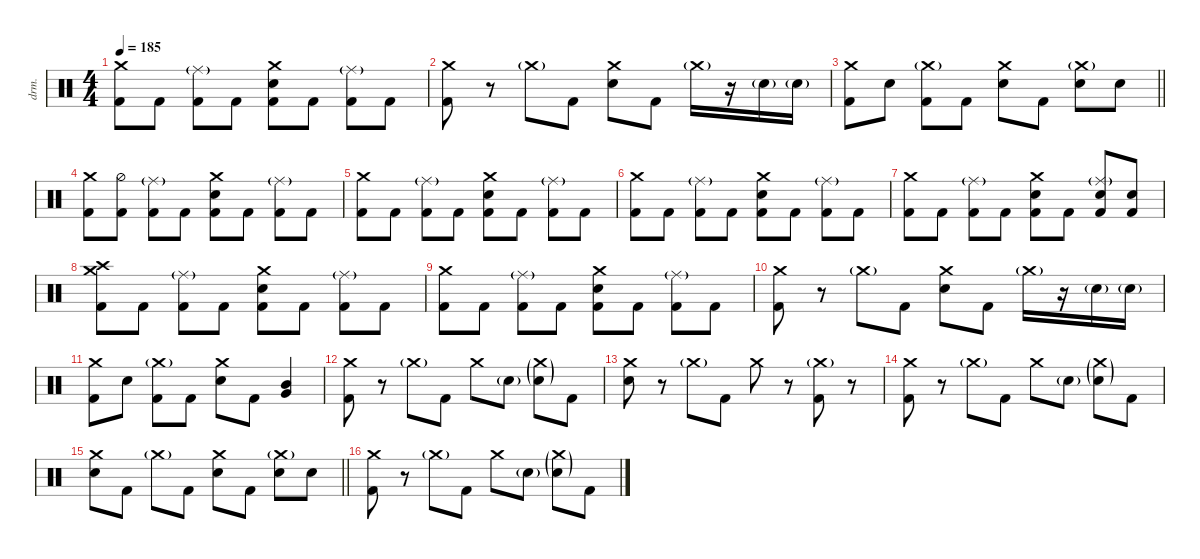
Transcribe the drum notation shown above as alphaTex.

\defaultSystemsLayout 4
\hideDynamics
\bracketExtendMode nobrackets
\track ("Drums - Šimon" "drm.") {instrument percussion}
\staff {score}
\articulation defaults
\ts (4 4)
\tempo 185
\clef neutral
\ks c
("Crash medium (hit)" "Kick (hit) 2").8{dy ff} "Kick (hit) 2".8 ("Kick (hit) 2" "Ride (middle)"{g}).8 "Kick (hit) 2".8 ("Snare (hit) 2" "Crash medium (hit)" "Kick (hit) 2").8 "Kick (hit) 2".8 ("Kick (hit) 2" "Ride (middle)"{g}).8 "Kick (hit) 2".8 |
("Kick (hit) 2" "Crash medium (hit)").8 r.8 "Crash medium (hit)"{g}.8 "Kick (hit) 2".8 ("Snare (hit) 2" "Crash medium (hit)").8 "Kick (hit) 2".8 "Crash medium (hit)"{g}.16 r.16 "Snare (hit) 2"{g}.16 "Snare (hit) 2"{g}.16 |
\barLineRight lightlight
("Crash medium (hit)" "Kick (hit) 2").8 "Snare (hit) 2".8 ("Kick (hit) 2" "Crash medium (hit)"{g}).8 "Kick (hit) 2".8 ("Snare (hit) 2" "Crash medium (hit)").8 "Kick (hit) 2".8 ("Crash medium (hit)"{g} "Snare (hit) 2").8 "Snare (hit) 2".8 |
("Crash medium (hit)" "Kick (hit) 2").8 ("Kick (hit) 2" "Hi-Hat (half)").8 ("Kick (hit) 2" "Ride (middle)"{g}).8 "Kick (hit) 2".8 ("Snare (hit) 2" "Crash medium (hit)" "Kick (hit) 2").8 "Kick (hit) 2".8 ("Kick (hit) 2" "Ride (middle)"{g}).8 "Kick (hit) 2".8 |
("Crash medium (hit)" "Kick (hit) 2").8 "Kick (hit) 2".8 ("Kick (hit) 2" "Ride (middle)"{g}).8 "Kick (hit) 2".8 ("Snare (hit) 2" "Crash medium (hit)" "Kick (hit) 2").8 "Kick (hit) 2".8 ("Kick (hit) 2" "Ride (middle)"{g}).8 "Kick (hit) 2".8 |
("Crash medium (hit)" "Kick (hit) 2").8 "Kick (hit) 2".8 ("Kick (hit) 2" "Ride (middle)"{g}).8 "Kick (hit) 2".8 ("Snare (hit) 2" "Crash medium (hit)" "Kick (hit) 2").8 "Kick (hit) 2".8 ("Kick (hit) 2" "Ride (middle)"{g}).8 "Kick (hit) 2".8 |
("Crash medium (hit)" "Kick (hit) 2").8 "Kick (hit) 2".8 ("Kick (hit) 2" "Ride (middle)"{g}).8 "Kick (hit) 2".8 ("Snare (hit) 2" "Crash medium (hit)" "Kick (hit) 2").8 "Kick (hit) 2".8 ("Kick (hit) 2" "Ride (middle)"{g} "Snare (hit) 2").8 ("Kick (hit) 2" "Snare (hit) 2").8 |
("Crash medium (hit)" "Kick (hit) 2" "Crash high (hit)").8 "Kick (hit) 2".8 ("Kick (hit) 2" "Ride (middle)"{g}).8 "Kick (hit) 2".8 ("Snare (hit) 2" "Crash medium (hit)" "Kick (hit) 2").8 "Kick (hit) 2".8 ("Kick (hit) 2" "Ride (middle)"{g}).8 "Kick (hit) 2".8 |
("Crash medium (hit)" "Kick (hit) 2").8 "Kick (hit) 2".8 ("Kick (hit) 2" "Ride (middle)"{g}).8 "Kick (hit) 2".8 ("Snare (hit) 2" "Crash medium (hit)" "Kick (hit) 2").8 "Kick (hit) 2".8 ("Kick (hit) 2" "Ride (middle)"{g}).8 "Kick (hit) 2".8 |
("Kick (hit) 2" "Crash medium (hit)").8 r.8 "Crash medium (hit)"{g}.8 "Kick (hit) 2".8 ("Snare (hit) 2" "Crash medium (hit)").8 "Kick (hit) 2".8 "Crash medium (hit)"{g}.16 r.16 "Snare (hit) 2"{g}.16 "Snare (hit) 2"{g}.16 |
("Crash medium (hit)" "Kick (hit) 2").8 "Snare (hit) 2".8 ("Kick (hit) 2" "Crash medium (hit)"{g}).8 "Kick (hit) 2".8 ("Snare (hit) 2" "Crash medium (hit)").8 "Kick (hit) 2".8 ("Very Low Tom (hit)" "Mid Tom (hit)").4 |
("Crash medium (hit)" "Kick (hit) 2").8 r.8 "Crash medium (hit)"{g}.8{dy f} "Kick (hit) 2".8{dy ff} "Crash medium (hit)".8 "Snare (hit) 2"{g}.8 ("Snare (hit) 2"{g} "Crash medium (hit)"{g}).8 "Kick (hit) 2".8 |
("Crash medium (hit)" "Snare (hit) 2").8 r.8 "Crash medium (hit)"{g}.8{dy f} "Kick (hit) 2".8{dy ff} "Crash medium (hit)".8 r.8 ("Kick (hit) 2" "Crash medium (hit)"{g}).8 r.8 |
("Crash medium (hit)" "Kick (hit) 2").8 r.8 "Crash medium (hit)"{g}.8{dy f} "Kick (hit) 2".8{dy ff} "Crash medium (hit)".8 "Snare (hit) 2"{g}.8 ("Snare (hit) 2"{g} "Crash medium (hit)"{g}).8 "Kick (hit) 2".8 |
\barLineRight lightlight
("Crash medium (hit)" "Snare (hit) 2").8 "Kick (hit) 2".8 "Crash medium (hit)"{g}.8{dy f} "Kick (hit) 2".8{dy ff} ("Crash medium (hit)" "Snare (hit) 2").8 "Kick (hit) 2".8 ("Snare (hit) 2" "Crash medium (hit)"{g}).8 "Snare (hit) 2".8 |
("Crash medium (hit)" "Kick (hit) 2").8 r.8 "Crash medium (hit)"{g}.8{dy f} "Kick (hit) 2".8{dy ff} "Crash medium (hit)".8 "Snare (hit) 2"{g}.8 ("Snare (hit) 2"{g} "Crash medium (hit)"{g}).8 "Kick (hit) 2".8
